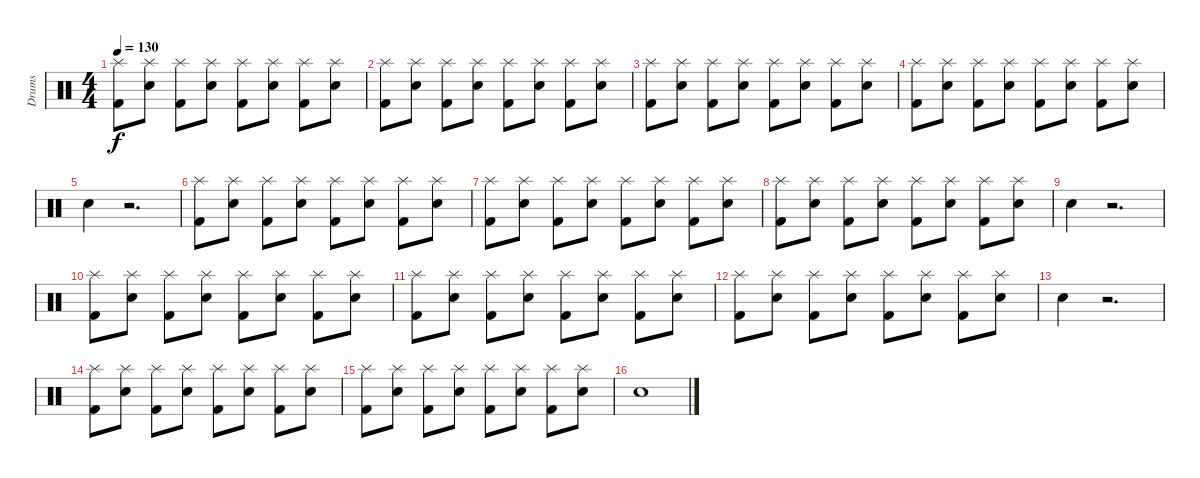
\track ("Drums" "Drums") {instrument percussion}
\staff {score}
\articulation defaults
\ts (4 4)
\tempo 130
\clef neutral
\ks c
("Splash (hit)" "Kick (hit) 2").8{dy f} ("Splash (hit)" "Electric Snare (hit)").8 ("Splash (hit)" "Kick (hit) 2").8 ("Splash (hit)" "Electric Snare (hit)").8 ("Splash (hit)" "Kick (hit) 2").8 ("Splash (hit)" "Electric Snare (hit)").8 ("Splash (hit)" "Kick (hit) 2").8 ("Splash (hit)" "Electric Snare (hit)").8 |
("Splash (hit)" "Kick (hit) 2").8 ("Splash (hit)" "Electric Snare (hit)").8 ("Splash (hit)" "Kick (hit) 2").8 ("Splash (hit)" "Electric Snare (hit)").8 ("Splash (hit)" "Kick (hit) 2").8 ("Splash (hit)" "Electric Snare (hit)").8 ("Splash (hit)" "Kick (hit) 2").8 ("Splash (hit)" "Electric Snare (hit)").8 |
("Splash (hit)" "Kick (hit) 2").8 ("Splash (hit)" "Electric Snare (hit)").8 ("Splash (hit)" "Kick (hit) 2").8 ("Splash (hit)" "Electric Snare (hit)").8 ("Splash (hit)" "Kick (hit) 2").8 ("Splash (hit)" "Electric Snare (hit)").8 ("Splash (hit)" "Kick (hit) 2").8 ("Splash (hit)" "Electric Snare (hit)").8 |
("Splash (hit)" "Kick (hit) 2").8 ("Splash (hit)" "Electric Snare (hit)").8 ("Splash (hit)" "Kick (hit) 2").8 ("Splash (hit)" "Electric Snare (hit)").8 ("Splash (hit)" "Kick (hit) 2").8 ("Splash (hit)" "Electric Snare (hit)").8 ("Splash (hit)" "Kick (hit) 2").8 ("Splash (hit)" "Electric Snare (hit)").8 |
"Electric Snare (hit)".4 r.2{d} |
("Splash (hit)" "Kick (hit) 2").8 ("Splash (hit)" "Electric Snare (hit)").8 ("Splash (hit)" "Kick (hit) 2").8 ("Splash (hit)" "Electric Snare (hit)").8 ("Splash (hit)" "Kick (hit) 2").8 ("Splash (hit)" "Electric Snare (hit)").8 ("Splash (hit)" "Kick (hit) 2").8 ("Splash (hit)" "Electric Snare (hit)").8 |
("Splash (hit)" "Kick (hit) 2").8 ("Splash (hit)" "Electric Snare (hit)").8 ("Splash (hit)" "Kick (hit) 2").8 ("Splash (hit)" "Electric Snare (hit)").8 ("Splash (hit)" "Kick (hit) 2").8 ("Splash (hit)" "Electric Snare (hit)").8 ("Splash (hit)" "Kick (hit) 2").8 ("Splash (hit)" "Electric Snare (hit)").8 |
("Splash (hit)" "Kick (hit) 2").8 ("Splash (hit)" "Electric Snare (hit)").8 ("Splash (hit)" "Kick (hit) 2").8 ("Splash (hit)" "Electric Snare (hit)").8 ("Splash (hit)" "Kick (hit) 2").8 ("Splash (hit)" "Electric Snare (hit)").8 ("Splash (hit)" "Kick (hit) 2").8 ("Splash (hit)" "Electric Snare (hit)").8 |
"Electric Snare (hit)".4 r.2{d} |
("Splash (hit)" "Kick (hit) 2").8 ("Splash (hit)" "Electric Snare (hit)").8 ("Splash (hit)" "Kick (hit) 2").8 ("Splash (hit)" "Electric Snare (hit)").8 ("Splash (hit)" "Kick (hit) 2").8 ("Splash (hit)" "Electric Snare (hit)").8 ("Splash (hit)" "Kick (hit) 2").8 ("Splash (hit)" "Electric Snare (hit)").8 |
("Splash (hit)" "Kick (hit) 2").8 ("Splash (hit)" "Electric Snare (hit)").8 ("Splash (hit)" "Kick (hit) 2").8 ("Splash (hit)" "Electric Snare (hit)").8 ("Splash (hit)" "Kick (hit) 2").8 ("Splash (hit)" "Electric Snare (hit)").8 ("Splash (hit)" "Kick (hit) 2").8 ("Splash (hit)" "Electric Snare (hit)").8 |
("Splash (hit)" "Kick (hit) 2").8 ("Splash (hit)" "Electric Snare (hit)").8 ("Splash (hit)" "Kick (hit) 2").8 ("Splash (hit)" "Electric Snare (hit)").8 ("Splash (hit)" "Kick (hit) 2").8 ("Splash (hit)" "Electric Snare (hit)").8 ("Splash (hit)" "Kick (hit) 2").8 ("Splash (hit)" "Electric Snare (hit)").8 |
"Electric Snare (hit)".4 r.2{d} |
("Splash (hit)" "Kick (hit) 2").8 ("Splash (hit)" "Electric Snare (hit)").8 ("Splash (hit)" "Kick (hit) 2").8 ("Splash (hit)" "Electric Snare (hit)").8 ("Splash (hit)" "Kick (hit) 2").8 ("Splash (hit)" "Electric Snare (hit)").8 ("Splash (hit)" "Kick (hit) 2").8 ("Splash (hit)" "Electric Snare (hit)").8 |
("Splash (hit)" "Kick (hit) 2").8 ("Splash (hit)" "Electric Snare (hit)").8 ("Splash (hit)" "Kick (hit) 2").8 ("Splash (hit)" "Electric Snare (hit)").8 ("Splash (hit)" "Kick (hit) 2").8 ("Splash (hit)" "Electric Snare (hit)").8 ("Splash (hit)" "Kick (hit) 2").8 ("Splash (hit)" "Electric Snare (hit)").8 |
"Electric Snare (hit)".1
